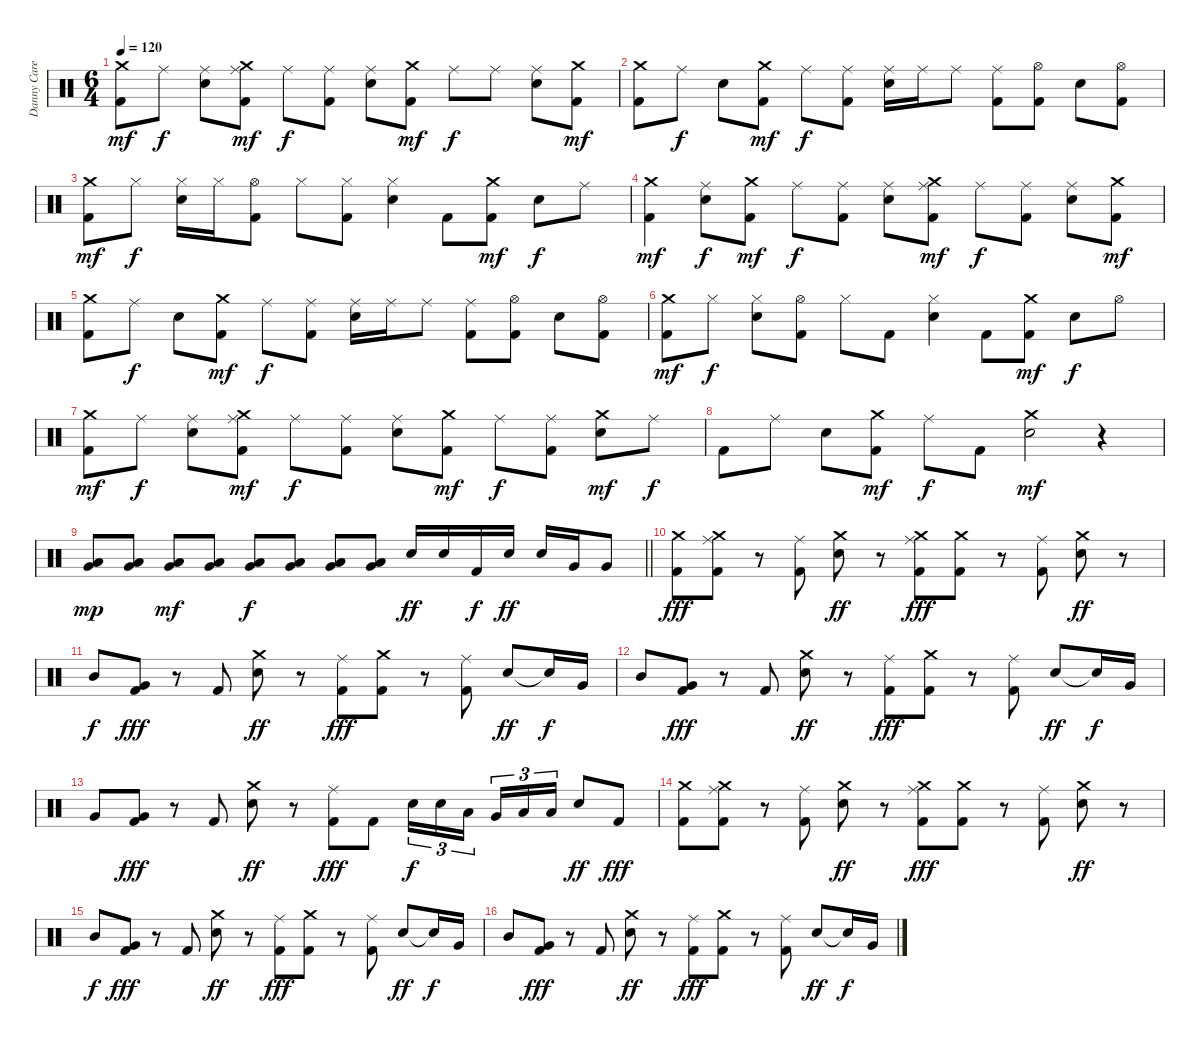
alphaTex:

\track ("Danny Carey" "Danny Care") {instrument percussion}
\staff {score}
\articulation defaults
\ts (6 4)
\tempo 120
\clef neutral
\ks c
("Crash medium (hit)" "Kick (hit) 2").8{dy mf} "Ride (middle)".8{dy f} ("Ride (middle)" "Snare (hit) 2").8 ("Crash medium (hit)" "Ride (middle)" "Kick (hit) 2").8{dy mf} "Ride (middle)".8{dy f} ("Ride (middle)" "Kick (hit) 2").8 ("Ride (middle)" "Snare (hit) 2").8 ("Crash medium (hit)" "Kick (hit) 2").8{dy mf} "Ride (middle)".8{dy f} "Ride (middle)".8 ("Ride (middle)" "Snare (hit) 2").8 ("Crash medium (hit)" "Kick (hit) 2").8{dy mf} |
("Crash medium (hit)" "Kick (hit) 2").8 "Ride (middle)".8{dy f} "Snare (hit) 2".8 ("Crash medium (hit)" "Kick (hit) 2").8{dy mf} "Ride (middle)".8{dy f} ("Ride (middle)" "Kick (hit) 2").8 ("Ride (middle)" "Snare (hit) 2").16 "Ride (middle)".16 "Ride (middle)".8 ("Ride (middle)" "Kick (hit) 2").8 ("Hi-Hat (open)" "Kick (hit) 2").8 "Snare (hit) 2".8 ("Hi-Hat (open)" "Kick (hit) 2").8 |
("Crash medium (hit)" "Kick (hit) 2").8{dy mf} "Hi-Hat (closed)".8{dy f} ("Hi-Hat (closed)" "Snare (hit) 2").16 "Hi-Hat (closed)".16 ("Hi-Hat (open)" "Kick (hit) 2").8 "Hi-Hat (closed)".8 ("Hi-Hat (closed)" "Kick (hit) 2").8 ("Hi-Hat (closed)" "Snare (hit) 2").4 "Kick (hit) 2".8 ("Crash medium (hit)" "Kick (hit) 2").8{dy mf} "Snare (hit) 2".8{dy f} "Ride (middle)".8 |
("Crash medium (hit)" "Kick (hit) 2").4{dy mf} ("Ride (middle)" "Snare (hit) 2").8{dy f} ("Crash medium (hit)" "Kick (hit) 2").8{dy mf} "Ride (middle)".8{dy f} ("Ride (middle)" "Kick (hit) 2").8 ("Ride (middle)" "Snare (hit) 2").8 ("Crash medium (hit)" "Ride (middle)" "Kick (hit) 2").8{dy mf} "Ride (middle)".8{dy f} ("Ride (middle)" "Kick (hit) 2").8 ("Ride (middle)" "Snare (hit) 2").8 ("Crash medium (hit)" "Kick (hit) 2").8{dy mf} |
("Crash medium (hit)" "Kick (hit) 2").8 "Ride (middle)".8{dy f} "Snare (hit) 2".8 ("Crash medium (hit)" "Kick (hit) 2").8{dy mf} "Ride (middle)".8{dy f} ("Ride (middle)" "Kick (hit) 2").8 ("Ride (middle)" "Snare (hit) 2").16 "Ride (middle)".16 "Ride (middle)".8 ("Ride (middle)" "Kick (hit) 2").8 ("Hi-Hat (open)" "Kick (hit) 2").8 "Snare (hit) 2".8 ("Hi-Hat (open)" "Kick (hit) 2").8 |
("Crash medium (hit)" "Kick (hit) 2").8{dy mf} "Hi-Hat (closed)".8{dy f} ("Hi-Hat (closed)" "Snare (hit) 2").8 ("Hi-Hat (open)" "Kick (hit) 2").8 "Hi-Hat (closed)".8 "Kick (hit) 2".8 ("Hi-Hat (closed)" "Snare (hit) 2").4 "Kick (hit) 2".8 ("Crash medium (hit)" "Kick (hit) 2").8{dy mf} "Snare (hit) 2".8{dy f} "Hi-Hat (open)".8 |
("Crash medium (hit)" "Kick (hit) 2").8{dy mf} "Ride (middle)".8{dy f} ("Ride (middle)" "Snare (hit) 2").8 ("Crash medium (hit)" "Ride (middle)" "Kick (hit) 2").8{dy mf} "Ride (middle)".8{dy f} ("Ride (middle)" "Kick (hit) 2").8 ("Ride (middle)" "Snare (hit) 2").8 ("Crash medium (hit)" "Kick (hit) 2").8{dy mf} "Ride (middle)".8{dy f} ("Ride (middle)" "Kick (hit) 2").8 ("Crash medium (hit)" "Snare (hit) 2").8{dy mf} "Ride (middle)".8{dy f} |
"Kick (hit) 2".8 "Ride (middle)".8 "Snare (hit) 2".8 ("Crash medium (hit)" "Kick (hit) 2").8{dy mf} "Ride (middle)".8{dy f} "Kick (hit) 2".8 ("Crash medium (hit)" "Snare (hit) 2").2{dy mf} r.4 |
\barLineRight lightlight
("Very Low Tom (hit)" "Low Floor Tom (hit)").8{dy mp} ("Very Low Tom (hit)" "Low Floor Tom (hit)").8 ("Very Low Tom (hit)" "Low Floor Tom (hit)").8{dy mf} ("Very Low Tom (hit)" "Low Floor Tom (hit)").8 ("Very Low Tom (hit)" "Low Floor Tom (hit)").8{dy f} ("Very Low Tom (hit)" "Low Floor Tom (hit)").8 ("Very Low Tom (hit)" "Low Floor Tom (hit)").8 ("Very Low Tom (hit)" "Low Floor Tom (hit)").8 "Snare (hit) 2".16{dy ff} "Snare (hit) 2".16 "Kick (hit) 2".16{dy f} "Snare (hit) 2".16{dy ff} "Snare (hit) 2".16 "Very Low Tom (hit)".16 "Very Low Tom (hit)".8 |
\section ("" "")
("Crash medium (hit)" "Kick (hit) 2").8{dy fff} ("Crash medium (hit)" "Ride (middle)" "Kick (hit) 2").8 r.8 ("Ride (middle)" "Kick (hit) 2").8 ("Crash medium (hit)" "Snare (hit) 2").8{dy ff} r.8 ("Crash medium (hit)" "Ride (middle)" "Kick (hit) 2").8{dy fff} ("Crash medium (hit)" "Kick (hit) 2").8 r.8 ("Ride (middle)" "Kick (hit) 2").8 ("Crash medium (hit)" "Snare (hit) 2").8{dy ff} r.8 |
"Mid Tom (hit)".8{dy f} ("Very Low Tom (hit)" "Kick (hit) 2").8{dy fff} r.8 "Kick (hit) 2".8 ("Crash medium (hit)" "Snare (hit) 2").8{dy ff} r.8 ("Ride (middle)" "Kick (hit) 2").8{dy fff} ("Crash medium (hit)" "Kick (hit) 2").8 r.8 ("Ride (middle)" "Kick (hit) 2").8 "Snare (hit) 2".8{dy ff} "Snare (hit)"{t}.16{dy f} "Very Low Tom (hit)".16 |
"Mid Tom (hit)".8 ("Very Low Tom (hit)" "Kick (hit) 2").8{dy fff} r.8 "Kick (hit) 2".8 ("Crash medium (hit)" "Snare (hit) 2").8{dy ff} r.8 ("Ride (middle)" "Kick (hit) 2").8{dy fff} ("Crash medium (hit)" "Kick (hit) 2").8 r.8 ("Ride (middle)" "Kick (hit) 2").8 "Snare (hit) 2".8{dy ff} "Snare (hit)"{t}.16{dy f} "Very Low Tom (hit)".16 |
"Very Low Tom (hit)".8 ("Very Low Tom (hit)" "Kick (hit) 2").8{dy fff} r.8 "Kick (hit) 2".8 ("Crash medium (hit)" "Snare (hit) 2").8{dy ff} r.8 ("Ride (middle)" "Kick (hit) 2").8{dy fff} "Kick (hit) 2".8 "Snare (hit) 2".16{tu (3 2) dy f} "Snare (hit) 2".16{tu (3 2)} "Low Tom (hit)".16{tu (3 2) beam splitsecondary} "Very Low Tom (hit)".16{tu (3 2)} "Low Floor Tom (hit)".16{tu (3 2)} "Low Floor Tom (hit)".16{tu (3 2)} "Snare (hit) 2".8{dy ff} "Kick (hit) 2".8{dy fff} |
("Crash medium (hit)" "Kick (hit) 2").8 ("Crash medium (hit)" "Ride (middle)" "Kick (hit) 2").8 r.8 ("Ride (middle)" "Kick (hit) 2").8 ("Crash medium (hit)" "Snare (hit) 2").8{dy ff} r.8 ("Crash medium (hit)" "Ride (middle)" "Kick (hit) 2").8{dy fff} ("Crash medium (hit)" "Kick (hit) 2").8 r.8 ("Ride (middle)" "Kick (hit) 2").8 ("Crash medium (hit)" "Snare (hit) 2").8{dy ff} r.8 |
"Mid Tom (hit)".8{dy f} ("Very Low Tom (hit)" "Kick (hit) 2").8{dy fff} r.8 "Kick (hit) 2".8 ("Crash medium (hit)" "Snare (hit) 2").8{dy ff} r.8 ("Ride (middle)" "Kick (hit) 2").8{dy fff} ("Crash medium (hit)" "Kick (hit) 2").8 r.8 ("Ride (middle)" "Kick (hit) 2").8 "Snare (hit) 2".8{dy ff} "Snare (hit)"{t}.16{dy f} "Very Low Tom (hit)".16 |
"Mid Tom (hit)".8 ("Very Low Tom (hit)" "Kick (hit) 2").8{dy fff} r.8 "Kick (hit) 2".8 ("Crash medium (hit)" "Snare (hit) 2").8{dy ff} r.8 ("Ride (middle)" "Kick (hit) 2").8{dy fff} ("Crash medium (hit)" "Kick (hit) 2").8 r.8 ("Ride (middle)" "Kick (hit) 2").8 "Snare (hit) 2".8{dy ff} "Snare (hit)"{t}.16{dy f} "Very Low Tom (hit)".16
